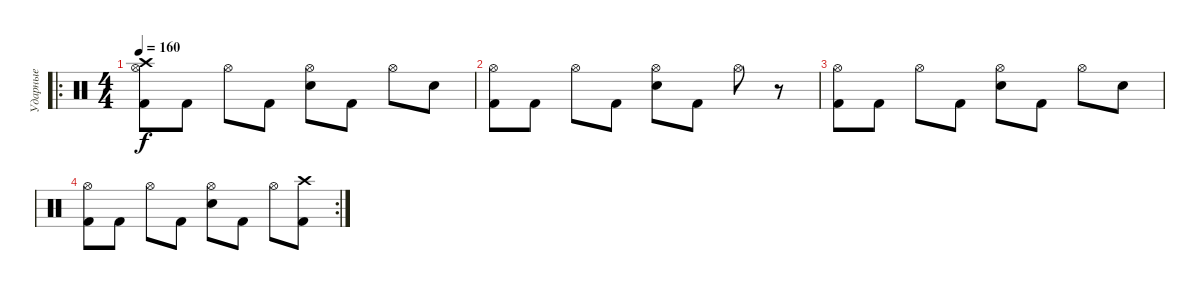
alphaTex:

\track ("Ударные" "Ударные") {instrument percussion}
\staff {score}
\articulation defaults
\ro
\ts (4 4)
\tempo 160
\clef neutral
\ks c
("Kick (hit) 2" "Hi-Hat (open)" "Crash high (hit)").8{dy f} "Kick (hit) 2".8 "Hi-Hat (open)".8 "Kick (hit) 2".8 ("Snare (hit) 2" "Hi-Hat (open)").8 "Kick (hit) 2".8 "Hi-Hat (open)".8 "Snare (hit) 2".8 |
("Kick (hit) 2" "Hi-Hat (open)").8 "Kick (hit) 2".8 "Hi-Hat (open)".8 "Kick (hit) 2".8 ("Snare (hit) 2" "Hi-Hat (open)").8 "Kick (hit) 2".8 "Hi-Hat (open)".8 r.8 |
("Kick (hit) 2" "Hi-Hat (open)").8 "Kick (hit) 2".8 "Hi-Hat (open)".8 "Kick (hit) 2".8 ("Snare (hit) 2" "Hi-Hat (open)").8 "Kick (hit) 2".8 "Hi-Hat (open)".8 "Snare (hit) 2".8 |
\rc 2
("Kick (hit) 2" "Hi-Hat (open)").8 "Kick (hit) 2".8 "Hi-Hat (open)".8 "Kick (hit) 2".8 ("Snare (hit) 2" "Hi-Hat (open)").8 "Kick (hit) 2".8 "Hi-Hat (open)".8 ("Kick (hit) 2" "Crash high (hit)").8
